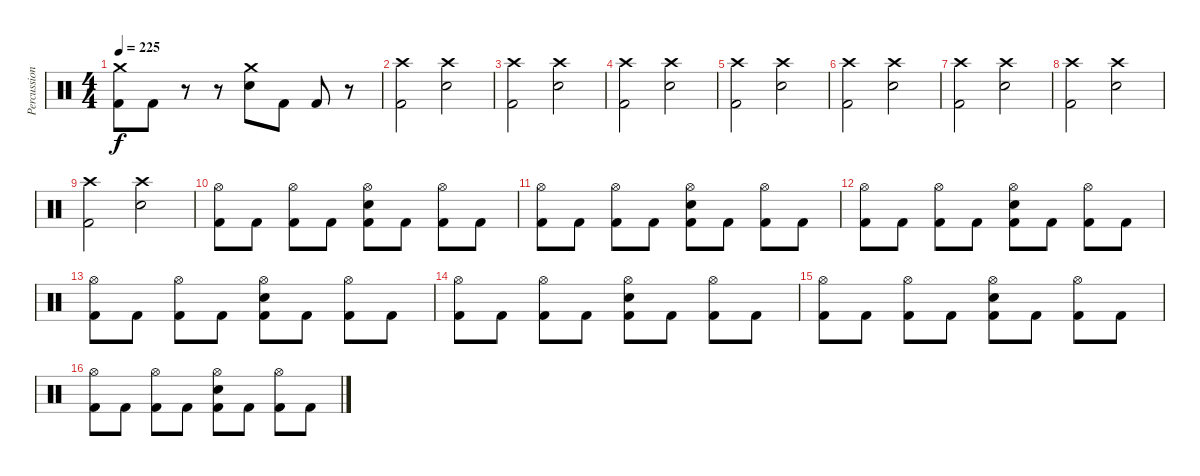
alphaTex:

\track ("Percussions" "Percussion") {instrument percussion}
\staff {score}
\articulation defaults
\ts (4 4)
\tempo 225
\clef neutral
\ks c
("Crash medium (hit)" "Kick (hit) 2").8{dy f} "Kick (hit) 2".8 r.8 r.8 ("Crash medium (hit)" "Electric Snare (hit)").8 "Kick (hit) 2".8 "Kick (hit) 2".8 r.8 |
("Crash high (hit)" "Kick (hit) 2").2 ("Crash high (hit)" "Electric Snare (hit)").2 |
("Crash high (hit)" "Kick (hit) 2").2 ("Crash high (hit)" "Electric Snare (hit)").2 |
("Crash high (hit)" "Kick (hit) 2").2 ("Crash high (hit)" "Electric Snare (hit)").2 |
("Crash high (hit)" "Kick (hit) 2").2 ("Crash high (hit)" "Electric Snare (hit)").2 |
("Crash high (hit)" "Kick (hit) 2").2 ("Crash high (hit)" "Electric Snare (hit)").2 |
("Crash high (hit)" "Kick (hit) 2").2 ("Crash high (hit)" "Electric Snare (hit)").2 |
("Crash high (hit)" "Kick (hit) 2").2 ("Crash high (hit)" "Electric Snare (hit)").2 |
("Crash high (hit)" "Kick (hit) 2").2 ("Crash high (hit)" "Electric Snare (hit)").2 |
("Hi-Hat (open)" "Kick (hit) 2").8 "Kick (hit) 2".8 ("Hi-Hat (open)" "Kick (hit) 2").8 "Kick (hit) 2".8 ("Hi-Hat (open)" "Electric Snare (hit)" "Kick (hit) 2").8 "Kick (hit) 2".8 ("Hi-Hat (open)" "Kick (hit) 2").8 "Kick (hit) 2".8 |
("Hi-Hat (open)" "Kick (hit) 2").8 "Kick (hit) 2".8 ("Hi-Hat (open)" "Kick (hit) 2").8 "Kick (hit) 2".8 ("Hi-Hat (open)" "Electric Snare (hit)" "Kick (hit) 2").8 "Kick (hit) 2".8 ("Hi-Hat (open)" "Kick (hit) 2").8 "Kick (hit) 2".8 |
("Hi-Hat (open)" "Kick (hit) 2").8 "Kick (hit) 2".8 ("Hi-Hat (open)" "Kick (hit) 2").8 "Kick (hit) 2".8 ("Hi-Hat (open)" "Electric Snare (hit)" "Kick (hit) 2").8 "Kick (hit) 2".8 ("Hi-Hat (open)" "Kick (hit) 2").8 "Kick (hit) 2".8 |
("Hi-Hat (open)" "Kick (hit) 2").8 "Kick (hit) 2".8 ("Hi-Hat (open)" "Kick (hit) 2").8 "Kick (hit) 2".8 ("Hi-Hat (open)" "Electric Snare (hit)" "Kick (hit) 2").8 "Kick (hit) 2".8 ("Hi-Hat (open)" "Kick (hit) 2").8 "Kick (hit) 2".8 |
("Hi-Hat (open)" "Kick (hit) 2").8 "Kick (hit) 2".8 ("Hi-Hat (open)" "Kick (hit) 2").8 "Kick (hit) 2".8 ("Hi-Hat (open)" "Electric Snare (hit)" "Kick (hit) 2").8 "Kick (hit) 2".8 ("Hi-Hat (open)" "Kick (hit) 2").8 "Kick (hit) 2".8 |
("Hi-Hat (open)" "Kick (hit) 2").8 "Kick (hit) 2".8 ("Hi-Hat (open)" "Kick (hit) 2").8 "Kick (hit) 2".8 ("Hi-Hat (open)" "Electric Snare (hit)" "Kick (hit) 2").8 "Kick (hit) 2".8 ("Hi-Hat (open)" "Kick (hit) 2").8 "Kick (hit) 2".8 |
("Hi-Hat (open)" "Kick (hit) 2").8 "Kick (hit) 2".8 ("Hi-Hat (open)" "Kick (hit) 2").8 "Kick (hit) 2".8 ("Hi-Hat (open)" "Electric Snare (hit)" "Kick (hit) 2").8 "Kick (hit) 2".8 ("Hi-Hat (open)" "Kick (hit) 2").8 "Kick (hit) 2".8
